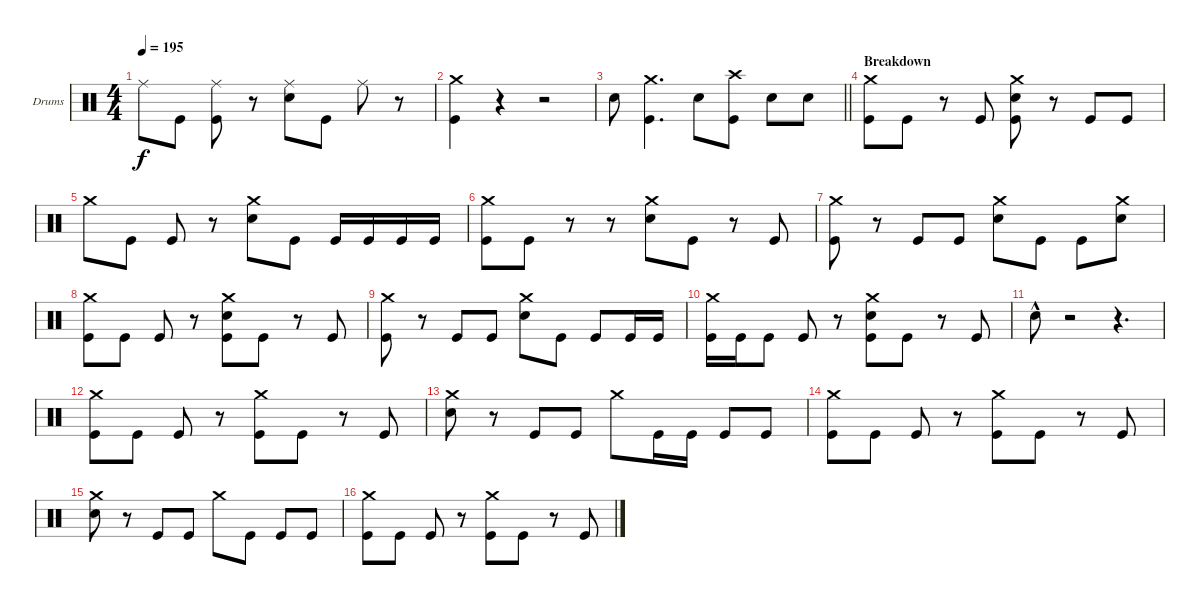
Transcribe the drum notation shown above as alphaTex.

\bracketExtendMode groupsimilarinstruments
\firstSystemTrackNameOrientation horizontal
\otherSystemsTrackNameOrientation horizontal
\track ("Drumkit" "Drums") {instrument percussion}
\staff {score}
\articulation defaults
\ts (4 4)
\tempo 195
\clef neutral
\ks c "Ride (middle)".8{dy f} "Kick (hit)".8
("Ride (middle)" "Kick (hit)").8 r.8 ("Ride (middle)" "Snare (hit) 2").8 "Kick (hit)".8 "Ride (middle)".8 r.8 |
("Crash medium (hit)" "Kick (hit)").4 r.4 r.2 |
\barLineRight lightlight "Snare (hit) 2".8
("Crash medium (hit)" "Kick (hit)").4{d} "Snare (hit) 2".8 ("Crash high (hit)" "Kick (hit)").8 "Snare (hit) 2".8 "Snare (hit) 2".8 |
\section ("" "Breakdown")
("Crash medium (hit)" "Kick (hit)").8 "Kick (hit)".8 r.8 "Kick (hit)".8 ("Crash medium (hit)" "Snare (hit) 2" "Kick (hit)").8 r.8 "Kick (hit)".8 "Kick (hit)".8 |
"Crash medium (hit)".8 "Kick (hit)".8 "Kick (hit)".8 r.8 ("Crash medium (hit)" "Snare (hit) 2").8 "Kick (hit)".8 "Kick (hit)".16 "Kick (hit)".16 "Kick (hit)".16 "Kick (hit)".16 |
("Crash medium (hit)" "Kick (hit)").8 "Kick (hit)".8 r.8 r.8 ("Crash medium (hit)" "Snare (hit) 2").8 "Kick (hit)".8 r.8 "Kick (hit)".8 |
("Crash medium (hit)" "Kick (hit)").8 r.8 "Kick (hit)".8 "Kick (hit)".8 ("Crash medium (hit)" "Snare (hit) 2").8 "Kick (hit)".8 "Kick (hit)".8 ("Crash medium (hit)" "Snare (hit) 2").8 |
("Crash medium (hit)" "Kick (hit)").8 "Kick (hit)".8 "Kick (hit)".8 r.8 ("Crash medium (hit)" "Snare (hit) 2" "Kick (hit)").8 "Kick (hit)".8 r.8 "Kick (hit)".8 |
("Crash medium (hit)" "Kick (hit)").8 r.8 "Kick (hit)".8 "Kick (hit)".8 ("Crash medium (hit)" "Snare (hit) 2").8 "Kick (hit)".8 "Kick (hit)".8 "Kick (hit)".16 "Kick (hit)".16 |
("Crash medium (hit)" "Kick (hit)").16 "Kick (hit)".16 "Kick (hit)".8 "Kick (hit)".8 r.8 ("Crash medium (hit)" "Snare (hit) 2" "Kick (hit)").8 "Kick (hit)".8 r.8 "Kick (hit)".8 |
"Snare (hit) 2"{hac}.8 r.2 r.4{d} |
("Crash medium (hit)" "Kick (hit)").8 "Kick (hit)".8 "Kick (hit)".8 r.8 ("Crash medium (hit)" "Kick (hit)").8 "Kick (hit)".8 r.8 "Kick (hit)".8 |
("Crash medium (hit)" "Snare (hit) 2").8 r.8 "Kick (hit)".8 "Kick (hit)".8 "Crash medium (hit)".8 "Kick (hit)".16 "Kick (hit)".16 "Kick (hit)".8 "Kick (hit)".8 |
("Crash medium (hit)" "Kick (hit)").8 "Kick (hit)".8 "Kick (hit)".8 r.8 ("Crash medium (hit)" "Kick (hit)").8 "Kick (hit)".8 r.8 "Kick (hit)".8 |
("Crash medium (hit)" "Snare (hit) 2").8 r.8 "Kick (hit)".8 "Kick (hit)".8 "Crash medium (hit)".8 "Kick (hit)".8 "Kick (hit)".8 "Kick (hit)".8 |
("Crash medium (hit)" "Kick (hit)").8 "Kick (hit)".8 "Kick (hit)".8 r.8 ("Crash medium (hit)" "Kick (hit)").8 "Kick (hit)".8 r.8 "Kick (hit)".8
